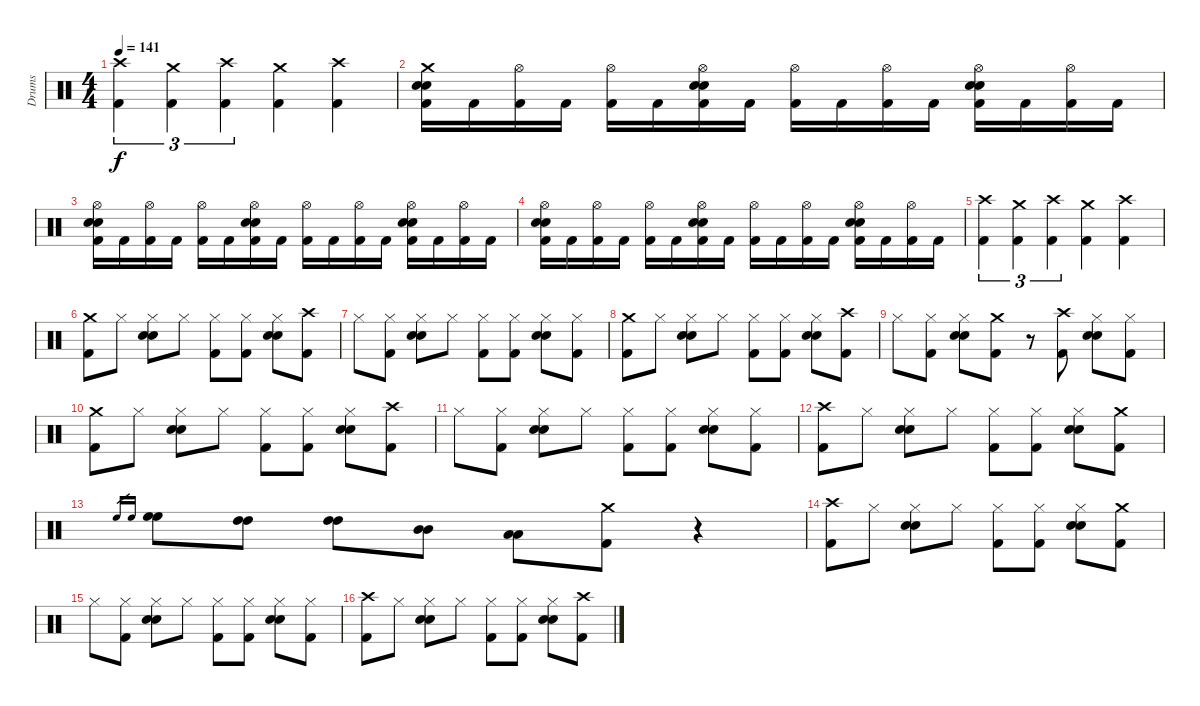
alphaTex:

\track ("Drums " "Drums ") {instrument percussion}
\staff {score}
\articulation defaults
\ts (4 4)
\tempo 141
\clef neutral
\ks c
("Crash high (hit)" "Kick (hit) 2").4{tu (3 2) dy f} ("Crash medium (hit)" "Kick (hit) 2").4{tu (3 2)} ("Crash high (hit)" "Kick (hit) 2").4{tu (3 2)} ("Crash medium (hit)" "Kick (hit) 2").4 ("Crash high (hit)" "Kick (hit) 2").4 |
("Crash medium (hit)" "Snare (hit) 2" "Electric Snare (hit)" "Kick (hit) 2").16 "Kick (hit) 2".16 ("Hi-Hat (open)" "Kick (hit) 2").16 "Kick (hit) 2".16 ("Hi-Hat (open)" "Kick (hit) 2").16 "Kick (hit) 2".16 ("Hi-Hat (open)" "Snare (hit) 2" "Electric Snare (hit)" "Kick (hit) 2").16 "Kick (hit) 2".16 ("Hi-Hat (open)" "Kick (hit) 2").16 "Kick (hit) 2".16 ("Hi-Hat (open)" "Kick (hit) 2").16 "Kick (hit) 2".16 ("Hi-Hat (open)" "Snare (hit) 2" "Electric Snare (hit)" "Kick (hit) 2").16 "Kick (hit) 2".16 ("Hi-Hat (open)" "Kick (hit) 2").16 "Kick (hit) 2".16 |
("Hi-Hat (open)" "Snare (hit) 2" "Electric Snare (hit)" "Kick (hit) 2").16 "Kick (hit) 2".16 ("Hi-Hat (open)" "Kick (hit) 2").16 "Kick (hit) 2".16 ("Hi-Hat (open)" "Kick (hit) 2").16 "Kick (hit) 2".16 ("Hi-Hat (open)" "Snare (hit) 2" "Electric Snare (hit)" "Kick (hit) 2").16 "Kick (hit) 2".16 ("Hi-Hat (open)" "Kick (hit) 2").16 "Kick (hit) 2".16 ("Hi-Hat (open)" "Kick (hit) 2").16 "Kick (hit) 2".16 ("Hi-Hat (open)" "Snare (hit) 2" "Electric Snare (hit)" "Kick (hit) 2").16 "Kick (hit) 2".16 ("Hi-Hat (open)" "Kick (hit) 2").16 "Kick (hit) 2".16 |
("Hi-Hat (open)" "Snare (hit) 2" "Electric Snare (hit)" "Kick (hit) 2").16 "Kick (hit) 2".16 ("Hi-Hat (open)" "Kick (hit) 2").16 "Kick (hit) 2".16 ("Hi-Hat (open)" "Kick (hit) 2").16 "Kick (hit) 2".16 ("Hi-Hat (open)" "Snare (hit) 2" "Electric Snare (hit)" "Kick (hit) 2").16 "Kick (hit) 2".16 ("Hi-Hat (open)" "Kick (hit) 2").16 "Kick (hit) 2".16 ("Hi-Hat (open)" "Kick (hit) 2").16 "Kick (hit) 2".16 ("Hi-Hat (open)" "Snare (hit) 2" "Electric Snare (hit)" "Kick (hit) 2").16 "Kick (hit) 2".16 ("Hi-Hat (open)" "Kick (hit) 2").16 "Kick (hit) 2".16 |
("Crash high (hit)" "Kick (hit) 2").4{tu (3 2)} ("Crash medium (hit)" "Kick (hit) 2").4{tu (3 2)} ("Crash high (hit)" "Kick (hit) 2").4{tu (3 2)} ("Crash medium (hit)" "Kick (hit) 2").4 ("Crash high (hit)" "Kick (hit) 2").4 |
("Crash medium (hit)" "Kick (hit) 2").8 "Hi-Hat (closed)".8 ("Hi-Hat (closed)" "Snare (hit) 2" "Electric Snare (hit)").8 "Hi-Hat (closed)".8 ("Hi-Hat (closed)" "Kick (hit) 2").8 ("Hi-Hat (closed)" "Kick (hit) 2").8 ("Hi-Hat (closed)" "Snare (hit) 2" "Electric Snare (hit)").8 ("Crash high (hit)" "Kick (hit) 2").8 |
"Hi-Hat (closed)".8 ("Hi-Hat (closed)" "Kick (hit) 2").8 ("Hi-Hat (closed)" "Snare (hit) 2" "Electric Snare (hit)").8 "Hi-Hat (closed)".8 ("Hi-Hat (closed)" "Kick (hit) 2").8 ("Hi-Hat (closed)" "Kick (hit) 2").8 ("Hi-Hat (closed)" "Snare (hit) 2" "Electric Snare (hit)").8 ("Hi-Hat (closed)" "Kick (hit) 2").8 |
("Crash medium (hit)" "Kick (hit) 2").8 "Hi-Hat (closed)".8 ("Hi-Hat (closed)" "Snare (hit) 2" "Electric Snare (hit)").8 "Hi-Hat (closed)".8 ("Hi-Hat (closed)" "Kick (hit) 2").8 ("Hi-Hat (closed)" "Kick (hit) 2").8 ("Hi-Hat (closed)" "Snare (hit) 2" "Electric Snare (hit)").8 ("Crash high (hit)" "Kick (hit) 2").8 |
"Hi-Hat (closed)".8 ("Hi-Hat (closed)" "Kick (hit) 2").8 ("Hi-Hat (closed)" "Snare (hit) 2" "Electric Snare (hit)").8 ("Crash medium (hit)" "Kick (hit) 2").8 r.8 ("Crash high (hit)" "Kick (hit) 2").8 ("Hi-Hat (closed)" "Snare (hit) 2" "Electric Snare (hit)").8 ("Hi-Hat (closed)" "Kick (hit) 2").8 |
("Crash medium (hit)" "Kick (hit) 2").8 "Hi-Hat (closed)".8 ("Hi-Hat (closed)" "Snare (hit) 2" "Electric Snare (hit)").8 "Hi-Hat (closed)".8 ("Hi-Hat (closed)" "Kick (hit) 2").8 ("Hi-Hat (closed)" "Kick (hit) 2").8 ("Hi-Hat (closed)" "Snare (hit) 2" "Electric Snare (hit)").8 ("Crash high (hit)" "Kick (hit) 2").8 |
"Hi-Hat (closed)".8 ("Hi-Hat (closed)" "Kick (hit) 2").8 ("Hi-Hat (closed)" "Snare (hit) 2" "Electric Snare (hit)").8 "Hi-Hat (closed)".8 ("Hi-Hat (closed)" "Kick (hit) 2").8 ("Hi-Hat (closed)" "Kick (hit) 2").8 ("Hi-Hat (closed)" "Snare (hit) 2" "Electric Snare (hit)").8 ("Hi-Hat (closed)" "Kick (hit) 2").8 |
("Crash high (hit)" "Kick (hit) 2").8 "Hi-Hat (closed)".8 ("Hi-Hat (closed)" "Snare (hit) 2" "Electric Snare (hit)").8 "Hi-Hat (closed)".8 ("Hi-Hat (closed)" "Kick (hit) 2").8 ("Hi-Hat (closed)" "Kick (hit) 2").8 ("Hi-Hat (closed)" "Snare (hit) 2" "Electric Snare (hit)").8 ("Crash medium (hit)" "Kick (hit) 2").8 |
"High Floor Tom (hit)".16{gr} "High Floor Tom (hit)".16{gr} ("High Floor Tom (hit)" "High Floor Tom (hit)").8 ("High Tom (hit)" "High Tom (hit)").8 ("High Tom (hit)" "High Tom (hit)").8 ("Mid Tom (hit)" "Mid Tom (hit)").8 ("Low Tom (hit)" "Low Tom (hit)").8 ("Crash medium (hit)" "Kick (hit) 2").8 r.4 |
("Crash high (hit)" "Kick (hit) 2").8 "Hi-Hat (closed)".8 ("Hi-Hat (closed)" "Snare (hit) 2" "Electric Snare (hit)").8 "Hi-Hat (closed)".8 ("Hi-Hat (closed)" "Kick (hit) 2").8 ("Hi-Hat (closed)" "Kick (hit) 2").8 ("Hi-Hat (closed)" "Snare (hit) 2" "Electric Snare (hit)").8 ("Crash medium (hit)" "Kick (hit) 2").8 |
"Hi-Hat (closed)".8 ("Hi-Hat (closed)" "Kick (hit) 2").8 ("Hi-Hat (closed)" "Snare (hit) 2" "Electric Snare (hit)").8 "Hi-Hat (closed)".8 ("Hi-Hat (closed)" "Kick (hit) 2").8 ("Hi-Hat (closed)" "Kick (hit) 2").8 ("Hi-Hat (closed)" "Snare (hit) 2" "Electric Snare (hit)").8 ("Hi-Hat (closed)" "Kick (hit) 2").8 |
("Crash high (hit)" "Kick (hit) 2").8 "Hi-Hat (closed)".8 ("Hi-Hat (closed)" "Snare (hit) 2" "Electric Snare (hit)").8 "Hi-Hat (closed)".8 ("Hi-Hat (closed)" "Kick (hit) 2").8 ("Hi-Hat (closed)" "Kick (hit) 2").8 ("Hi-Hat (closed)" "Snare (hit) 2" "Electric Snare (hit)").8 ("Crash high (hit)" "Kick (hit) 2").8
